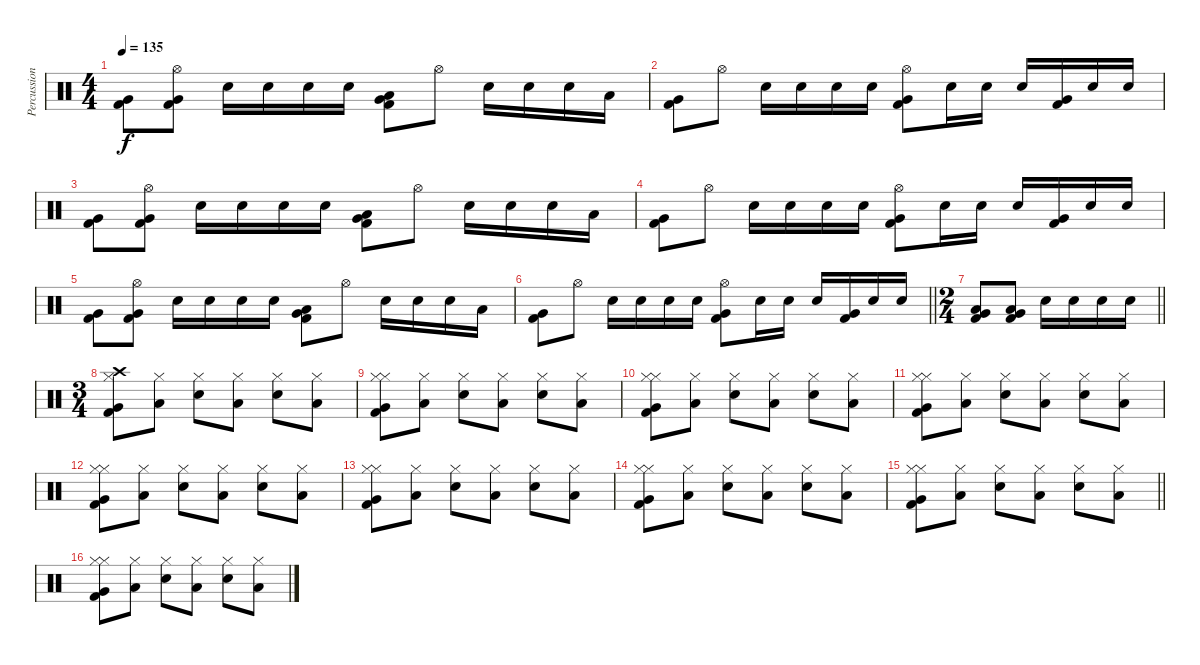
\track ("Percussion" "Percussion") {instrument percussion}
\staff {score}
\articulation defaults
\ts (4 4)
\tempo 135
\clef neutral
\ks c
("Very Low Tom (hit)" "Kick (hit) 2").8{dy f} ("Hi-Hat (open)" "Very Low Tom (hit)" "Kick (hit) 2").8 "Electric Snare (hit)".16 "Electric Snare (hit)".16 "Electric Snare (hit)".16 "Electric Snare (hit)".16 ("Low Tom (hit)" "Very Low Tom (hit)" "Kick (hit) 2").8 "Hi-Hat (open)".8 "Electric Snare (hit)".16 "Electric Snare (hit)".16 "Electric Snare (hit)".16 "Low Tom (hit)".16 |
("Very Low Tom (hit)" "Kick (hit) 2").8 "Hi-Hat (open)".8 "Electric Snare (hit)".16 "Electric Snare (hit)".16 "Electric Snare (hit)".16 "Electric Snare (hit)".16 ("Hi-Hat (open)" "Very Low Tom (hit)" "Kick (hit) 2").8 "Electric Snare (hit)".16 "Electric Snare (hit)".16 "Electric Snare (hit)".16 ("Very Low Tom (hit)" "Kick (hit) 2").16 "Electric Snare (hit)".16 "Electric Snare (hit)".16 |
("Very Low Tom (hit)" "Kick (hit) 2").8 ("Hi-Hat (open)" "Very Low Tom (hit)" "Kick (hit) 2").8 "Electric Snare (hit)".16 "Electric Snare (hit)".16 "Electric Snare (hit)".16 "Electric Snare (hit)".16 ("Low Tom (hit)" "Very Low Tom (hit)" "Kick (hit) 2").8 "Hi-Hat (open)".8 "Electric Snare (hit)".16 "Electric Snare (hit)".16 "Electric Snare (hit)".16 "Low Tom (hit)".16 |
("Very Low Tom (hit)" "Kick (hit) 2").8 "Hi-Hat (open)".8 "Electric Snare (hit)".16 "Electric Snare (hit)".16 "Electric Snare (hit)".16 "Electric Snare (hit)".16 ("Hi-Hat (open)" "Very Low Tom (hit)" "Kick (hit) 2").8 "Electric Snare (hit)".16 "Electric Snare (hit)".16 "Electric Snare (hit)".16 ("Very Low Tom (hit)" "Kick (hit) 2").16 "Electric Snare (hit)".16 "Electric Snare (hit)".16 |
("Very Low Tom (hit)" "Kick (hit) 2").8 ("Hi-Hat (open)" "Very Low Tom (hit)" "Kick (hit) 2").8 "Electric Snare (hit)".16 "Electric Snare (hit)".16 "Electric Snare (hit)".16 "Electric Snare (hit)".16 ("Low Tom (hit)" "Very Low Tom (hit)" "Kick (hit) 2").8 "Hi-Hat (open)".8 "Electric Snare (hit)".16 "Electric Snare (hit)".16 "Electric Snare (hit)".16 "Low Tom (hit)".16 |
\barLineRight lightlight
("Very Low Tom (hit)" "Kick (hit) 2").8 "Hi-Hat (open)".8 "Electric Snare (hit)".16 "Electric Snare (hit)".16 "Electric Snare (hit)".16 "Electric Snare (hit)".16 ("Hi-Hat (open)" "Very Low Tom (hit)" "Kick (hit) 2").8 "Electric Snare (hit)".16 "Electric Snare (hit)".16 "Electric Snare (hit)".16 ("Very Low Tom (hit)" "Kick (hit) 2").16 "Electric Snare (hit)".16 "Electric Snare (hit)".16 |
\ts (2 4)
\barLineRight lightlight
("Low Tom (hit)" "Very Low Tom (hit)" "Kick (hit) 2").8 ("Low Tom (hit)" "Very Low Tom (hit)" "Kick (hit) 2").8 "Electric Snare (hit)".16 "Electric Snare (hit)".16 "Electric Snare (hit)".16 "Electric Snare (hit)".16 |
\ts (3 4)
("Crash high (hit)" "Hi-Hat (closed)" "Very Low Tom (hit)" "Kick (hit) 2").8 ("Hi-Hat (closed)" "Low Tom (hit)").8 ("Hi-Hat (closed)" "Electric Snare (hit)").8 ("Hi-Hat (closed)" "Low Tom (hit)").8 ("Hi-Hat (closed)" "Electric Snare (hit)").8 ("Hi-Hat (closed)" "Low Tom (hit)").8 |
("Hi-Hat (closed)" "Hi-Hat (closed)" "Very Low Tom (hit)" "Kick (hit) 2").8 ("Hi-Hat (closed)" "Low Tom (hit)").8 ("Hi-Hat (closed)" "Electric Snare (hit)").8 ("Hi-Hat (closed)" "Low Tom (hit)").8 ("Hi-Hat (closed)" "Electric Snare (hit)").8 ("Hi-Hat (closed)" "Low Tom (hit)").8 |
("Hi-Hat (closed)" "Hi-Hat (closed)" "Very Low Tom (hit)" "Kick (hit) 2").8 ("Hi-Hat (closed)" "Low Tom (hit)").8 ("Hi-Hat (closed)" "Electric Snare (hit)").8 ("Hi-Hat (closed)" "Low Tom (hit)").8 ("Hi-Hat (closed)" "Electric Snare (hit)").8 ("Hi-Hat (closed)" "Low Tom (hit)").8 |
("Hi-Hat (closed)" "Hi-Hat (closed)" "Very Low Tom (hit)" "Kick (hit) 2").8 ("Hi-Hat (closed)" "Low Tom (hit)").8 ("Hi-Hat (closed)" "Electric Snare (hit)").8 ("Hi-Hat (closed)" "Low Tom (hit)").8 ("Hi-Hat (closed)" "Electric Snare (hit)").8 ("Hi-Hat (closed)" "Low Tom (hit)").8 |
("Hi-Hat (closed)" "Hi-Hat (closed)" "Very Low Tom (hit)" "Kick (hit) 2").8 ("Hi-Hat (closed)" "Low Tom (hit)").8 ("Hi-Hat (closed)" "Electric Snare (hit)").8 ("Hi-Hat (closed)" "Low Tom (hit)").8 ("Hi-Hat (closed)" "Electric Snare (hit)").8 ("Hi-Hat (closed)" "Low Tom (hit)").8 |
("Hi-Hat (closed)" "Hi-Hat (closed)" "Very Low Tom (hit)" "Kick (hit) 2").8 ("Hi-Hat (closed)" "Low Tom (hit)").8 ("Hi-Hat (closed)" "Electric Snare (hit)").8 ("Hi-Hat (closed)" "Low Tom (hit)").8 ("Hi-Hat (closed)" "Electric Snare (hit)").8 ("Hi-Hat (closed)" "Low Tom (hit)").8 |
("Hi-Hat (closed)" "Hi-Hat (closed)" "Very Low Tom (hit)" "Kick (hit) 2").8 ("Hi-Hat (closed)" "Low Tom (hit)").8 ("Hi-Hat (closed)" "Electric Snare (hit)").8 ("Hi-Hat (closed)" "Low Tom (hit)").8 ("Hi-Hat (closed)" "Electric Snare (hit)").8 ("Hi-Hat (closed)" "Low Tom (hit)").8 |
\barLineRight lightlight
("Hi-Hat (closed)" "Hi-Hat (closed)" "Very Low Tom (hit)" "Kick (hit) 2").8 ("Hi-Hat (closed)" "Low Tom (hit)").8 ("Hi-Hat (closed)" "Electric Snare (hit)").8 ("Hi-Hat (closed)" "Low Tom (hit)").8 ("Hi-Hat (closed)" "Electric Snare (hit)").8 ("Hi-Hat (closed)" "Low Tom (hit)").8 |
("Hi-Hat (closed)" "Hi-Hat (closed)" "Very Low Tom (hit)" "Kick (hit) 2").8 ("Hi-Hat (closed)" "Low Tom (hit)").8 ("Hi-Hat (closed)" "Electric Snare (hit)").8 ("Hi-Hat (closed)" "Low Tom (hit)").8 ("Hi-Hat (closed)" "Electric Snare (hit)").8 ("Hi-Hat (closed)" "Low Tom (hit)").8
